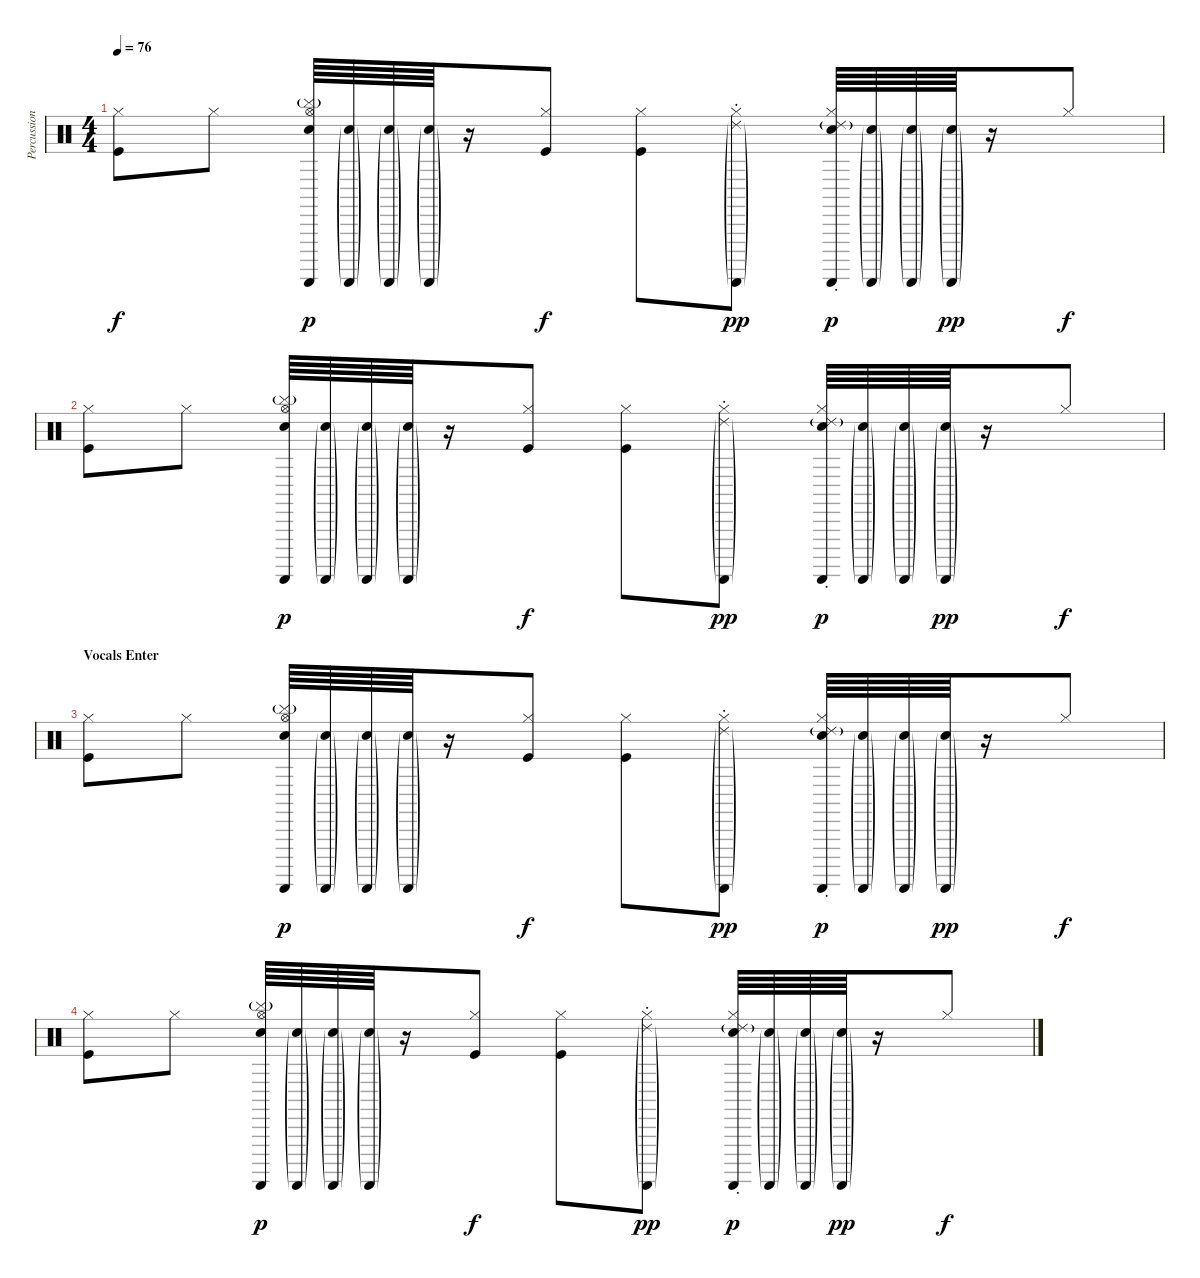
\track ("Percussion" "Percussion") {instrument percussion}
\staff {score}
\articulation defaults
\ts (4 4)
\tempo 76
\clef neutral
\ks c
("Hi-Hat (closed)" "Kick (hit)").8{dy f} "Hi-Hat (closed)".8 ("Hi-Hat (open)" "Cymbal (hit)"{g} "Snare (hit) 2" "Guiro (scrap-return)").64{dy p} ("Snare (hit) 2"{g} "Guiro (scrap-return)"{g}).64 ("Snare (hit) 2"{g} "Guiro (scrap-return)"{g}).64 ("Snare (hit) 2"{g} "Guiro (scrap-return)"{g}).64 r.16 ("Hi-Hat (closed)" "Kick (hit)").8{dy f} ("Hi-Hat (closed)" "Kick (hit)").8 ("Hi-Hat (closed)" "Ride (choke) 2"{g} "Guiro (scrap-return)"{g}).8{dy pp} ("Hi-Hat (closed)" "Ride (choke) 2"{g} "Snare (hit) 2" "Guiro (scrap-return)").64{dy p} ("Snare (hit) 2"{g} "Guiro (scrap-return)"{g}).64 ("Snare (hit) 2"{g} "Guiro (scrap-return)"{g}).64 ("Snare (hit) 2"{g} "Guiro (scrap-return)"{g}).64{dy pp} r.16 "Hi-Hat (closed)".8{dy f} |
("Hi-Hat (closed)" "Kick (hit)").8 "Hi-Hat (closed)".8 ("Hi-Hat (open)" "Cymbal (hit)"{g} "Snare (hit) 2" "Guiro (scrap-return)").64{dy p} ("Snare (hit) 2"{g} "Guiro (scrap-return)"{g}).64 ("Snare (hit) 2"{g} "Guiro (scrap-return)"{g}).64 ("Snare (hit) 2"{g} "Guiro (scrap-return)"{g}).64 r.16 ("Hi-Hat (closed)" "Kick (hit)").8{dy f} ("Hi-Hat (closed)" "Kick (hit)").8 ("Hi-Hat (closed)" "Ride (choke) 2"{g} "Guiro (scrap-return)"{g}).8{dy pp} ("Hi-Hat (closed)" "Ride (choke) 2"{g} "Snare (hit) 2" "Guiro (scrap-return)").64{dy p} ("Snare (hit) 2"{g} "Guiro (scrap-return)"{g}).64 ("Snare (hit) 2"{g} "Guiro (scrap-return)"{g}).64 ("Snare (hit) 2"{g} "Guiro (scrap-return)"{g}).64{dy pp} r.16 "Hi-Hat (closed)".8{dy f} |
\section ("" "Vocals Enter")
("Hi-Hat (closed)" "Kick (hit)").8 "Hi-Hat (closed)".8 ("Hi-Hat (open)" "Cymbal (hit)"{g} "Snare (hit) 2" "Guiro (scrap-return)").64{dy p} ("Snare (hit) 2"{g} "Guiro (scrap-return)"{g}).64 ("Snare (hit) 2"{g} "Guiro (scrap-return)"{g}).64 ("Snare (hit) 2"{g} "Guiro (scrap-return)"{g}).64 r.16 ("Hi-Hat (closed)" "Kick (hit)").8{dy f} ("Hi-Hat (closed)" "Kick (hit)").8 ("Hi-Hat (closed)" "Ride (choke) 2"{g} "Guiro (scrap-return)"{g}).8{dy pp} ("Hi-Hat (closed)" "Ride (choke) 2"{g} "Snare (hit) 2" "Guiro (scrap-return)").64{dy p} ("Snare (hit) 2"{g} "Guiro (scrap-return)"{g}).64 ("Snare (hit) 2"{g} "Guiro (scrap-return)"{g}).64 ("Snare (hit) 2"{g} "Guiro (scrap-return)"{g}).64{dy pp} r.16 "Hi-Hat (closed)".8{dy f} |
("Hi-Hat (closed)" "Kick (hit)").8 "Hi-Hat (closed)".8 ("Hi-Hat (open)" "Cymbal (hit)"{g} "Snare (hit) 2" "Guiro (scrap-return)").64{dy p} ("Snare (hit) 2"{g} "Guiro (scrap-return)"{g}).64 ("Snare (hit) 2"{g} "Guiro (scrap-return)"{g}).64 ("Snare (hit) 2"{g} "Guiro (scrap-return)"{g}).64 r.16 ("Hi-Hat (closed)" "Kick (hit)").8{dy f} ("Hi-Hat (closed)" "Kick (hit)").8 ("Hi-Hat (closed)" "Ride (choke) 2"{g} "Guiro (scrap-return)"{g}).8{dy pp} ("Hi-Hat (closed)" "Ride (choke) 2"{g} "Snare (hit) 2" "Guiro (scrap-return)").64{dy p} ("Snare (hit) 2"{g} "Guiro (scrap-return)"{g}).64 ("Snare (hit) 2"{g} "Guiro (scrap-return)"{g}).64 ("Snare (hit) 2"{g} "Guiro (scrap-return)"{g}).64{dy pp} r.16 "Hi-Hat (closed)".8{dy f}
